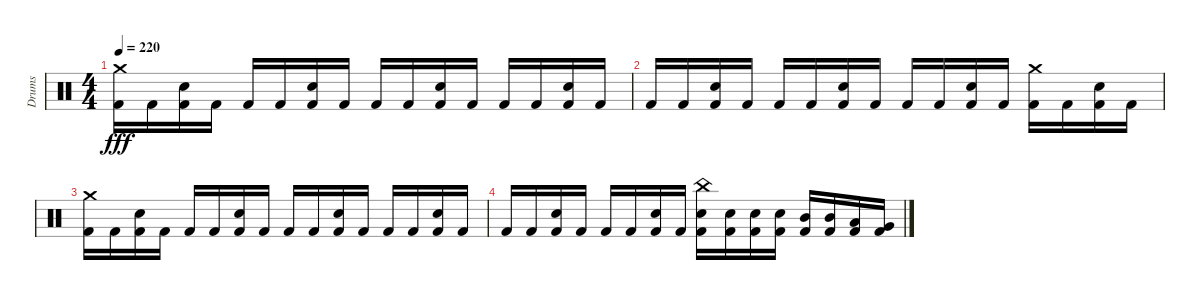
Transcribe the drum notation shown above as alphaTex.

\track ("Drums" "Drums") {instrument percussion}
\staff {score}
\articulation defaults
\ts (4 4)
\tempo 220
\clef neutral
\ks c
("Crash medium (hit)" "Kick (hit) 2").16{dy fff} "Kick (hit) 2".16 ("Kick (hit) 2" "Snare (hit) 2").16 "Kick (hit) 2".16 "Kick (hit) 2".16 "Kick (hit) 2".16 ("Kick (hit) 2" "Snare (hit) 2").16 "Kick (hit) 2".16 "Kick (hit) 2".16 "Kick (hit) 2".16 ("Kick (hit) 2" "Snare (hit) 2").16 "Kick (hit) 2".16 "Kick (hit) 2".16 "Kick (hit) 2".16 ("Kick (hit) 2" "Snare (hit) 2").16 "Kick (hit) 2".16 |
"Kick (hit) 2".16 "Kick (hit) 2".16 ("Kick (hit) 2" "Snare (hit) 2").16 "Kick (hit) 2".16 "Kick (hit) 2".16 "Kick (hit) 2".16 ("Kick (hit) 2" "Snare (hit) 2").16 "Kick (hit) 2".16 "Kick (hit) 2".16 "Kick (hit) 2".16 ("Kick (hit) 2" "Snare (hit) 2").16 "Kick (hit) 2".16 ("Crash medium (hit)" "Kick (hit) 2").16 "Kick (hit) 2".16 ("Kick (hit) 2" "Snare (hit) 2").16 "Kick (hit) 2".16 |
("Crash medium (hit)" "Kick (hit) 2").16 "Kick (hit) 2".16 ("Kick (hit) 2" "Snare (hit) 2").16 "Kick (hit) 2".16 "Kick (hit) 2".16 "Kick (hit) 2".16 ("Kick (hit) 2" "Snare (hit) 2").16 "Kick (hit) 2".16 "Kick (hit) 2".16 "Kick (hit) 2".16 ("Kick (hit) 2" "Snare (hit) 2").16 "Kick (hit) 2".16 "Kick (hit) 2".16 "Kick (hit) 2".16 ("Kick (hit) 2" "Snare (hit) 2").16 "Kick (hit) 2".16 |
"Kick (hit) 2".16 "Kick (hit) 2".16 ("Kick (hit) 2" "Snare (hit) 2").16 "Kick (hit) 2".16 "Kick (hit) 2".16 "Kick (hit) 2".16 ("Kick (hit) 2" "Snare (hit) 2").16 "Kick (hit) 2".16 ("China (hit)" "Kick (hit) 2" "Snare (hit) 2").16 ("Kick (hit) 2" "Snare (hit) 2").16 ("Kick (hit) 2" "Snare (hit) 2").16 ("Kick (hit) 2" "Snare (hit) 2").16 ("Kick (hit) 2" "Mid Tom (hit)").16 ("Kick (hit) 2" "Mid Tom (hit)").16 ("Kick (hit) 2" "Low Tom (hit)").16 ("Kick (hit) 2" "Very Low Tom (hit)").16
